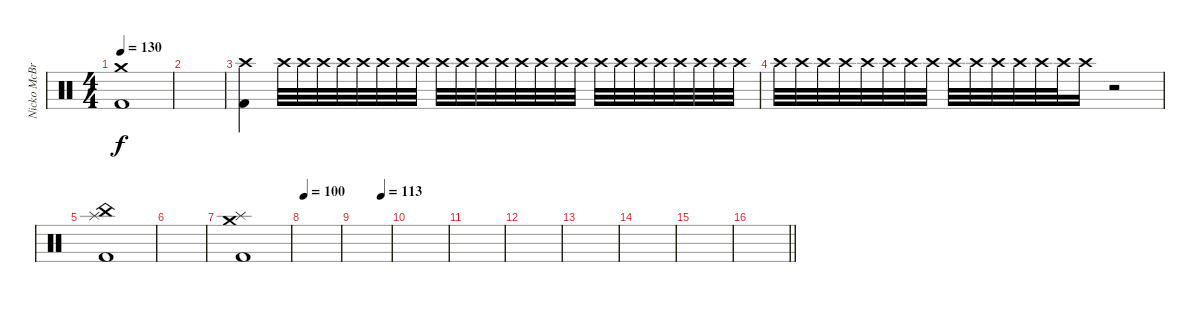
\track ("Nicko McBrain" "Nicko McBr") {instrument percussion}
\staff {score}
\articulation defaults
\ts (4 4)
\tempo 130
\clef neutral
\ks c
("Crash medium (hit)" "Kick (hit) 2").1{dy f} |
|
("Crash high (hit)" "Kick (hit) 2").4 "Crash high (hit)".32{volume 6} "Crash high (hit)".32{volume 16} "Crash high (hit)".32 "Crash high (hit)".32 "Crash high (hit)".32 "Crash high (hit)".32 "Crash high (hit)".32 "Crash high (hit)".32 "Crash high (hit)".32 "Crash high (hit)".32 "Crash high (hit)".32 "Crash high (hit)".32 "Crash high (hit)".32 "Crash high (hit)".32 "Crash high (hit)".32 "Crash high (hit)".32 "Crash high (hit)".32 "Crash high (hit)".32 "Crash high (hit)".32 "Crash high (hit)".32 "Crash high (hit)".32 "Crash high (hit)".32 "Crash high (hit)".32 "Crash high (hit)".32 |
"Crash high (hit)".32 "Crash high (hit)".32 "Crash high (hit)".32 "Crash high (hit)".32 "Crash high (hit)".32 "Crash high (hit)".32 "Crash high (hit)".32 "Crash high (hit)".32 "Crash high (hit)".32 "Crash high (hit)".32 "Crash high (hit)".32 "Crash high (hit)".32 "Crash high (hit)".32 "Crash high (hit)".32 "Crash high (hit)".16 r.2 |
("Splash (hit)" "China (hit)" "Kick (hit) 2").1 |
|
("Crash medium (hit)" "Splash (hit)" "Kick (hit) 2").1 |
\tempo 100
|
\tempo (113 0.75)
|
|
|
|
|
|
|
\barLineRight lightlight
